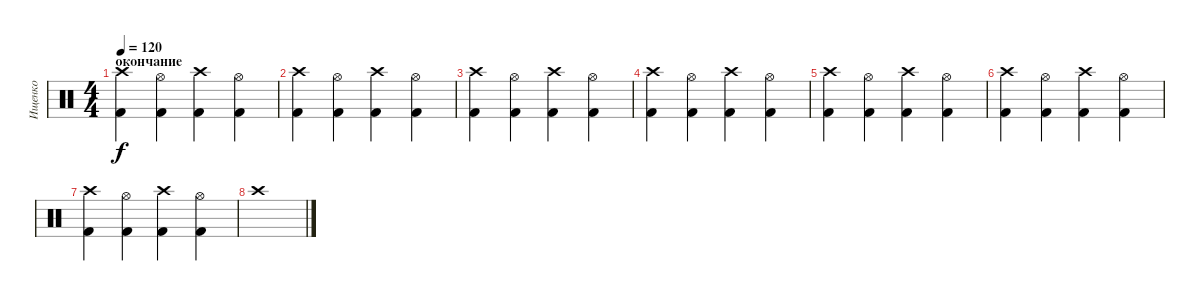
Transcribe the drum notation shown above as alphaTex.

\track ("Ищенко" "Ищенко") {instrument percussion}
\staff {score}
\articulation defaults
\ts (4 4)
\section ("" "окончание")
\tempo 120
\clef neutral
\ks c
("Kick (hit) 2" "Crash high (hit)").4{dy f} ("Kick (hit) 2" "Hi-Hat (open)").4 ("Kick (hit) 2" "Crash high (hit)").4 ("Kick (hit) 2" "Hi-Hat (open)").4 |
("Kick (hit) 2" "Crash high (hit)").4 ("Kick (hit) 2" "Hi-Hat (open)").4 ("Kick (hit) 2" "Crash high (hit)").4 ("Kick (hit) 2" "Hi-Hat (open)").4 |
("Kick (hit) 2" "Crash high (hit)").4 ("Kick (hit) 2" "Hi-Hat (open)").4 ("Kick (hit) 2" "Crash high (hit)").4 ("Kick (hit) 2" "Hi-Hat (open)").4 |
("Kick (hit) 2" "Crash high (hit)").4 ("Kick (hit) 2" "Hi-Hat (open)").4 ("Kick (hit) 2" "Crash high (hit)").4 ("Kick (hit) 2" "Hi-Hat (open)").4 |
("Kick (hit) 2" "Crash high (hit)").4 ("Kick (hit) 2" "Hi-Hat (open)").4 ("Kick (hit) 2" "Crash high (hit)").4 ("Kick (hit) 2" "Hi-Hat (open)").4 |
("Kick (hit) 2" "Crash high (hit)").4 ("Kick (hit) 2" "Hi-Hat (open)").4 ("Kick (hit) 2" "Crash high (hit)").4 ("Kick (hit) 2" "Hi-Hat (open)").4 |
("Kick (hit) 2" "Crash high (hit)").4 ("Kick (hit) 2" "Hi-Hat (open)").4 ("Kick (hit) 2" "Crash high (hit)").4 ("Kick (hit) 2" "Hi-Hat (open)").4 |
"Crash high (hit)".1
